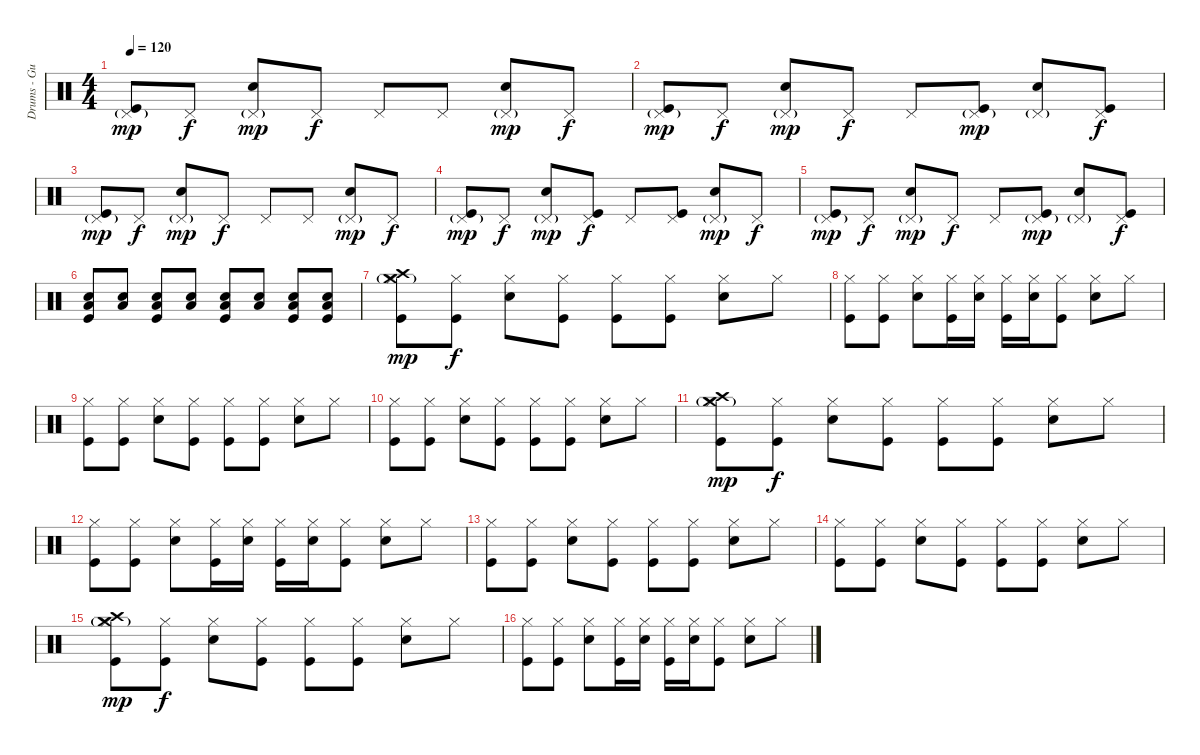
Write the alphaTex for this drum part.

\track ("Drums - Gustav" "Drums - Gu") {instrument percussion}
\staff {score}
\articulation defaults
\ts (4 4)
\tempo 120
\clef neutral
\ks c
("Kick (hit)" "Pedal Hi-Hat (hit)"{g}).8{dy mp} "Pedal Hi-Hat (hit)".8{dy f} ("Pedal Hi-Hat (hit)"{g} "Snare (hit) 2").8{dy mp} "Pedal Hi-Hat (hit)".8{dy f} "Pedal Hi-Hat (hit)".8 "Pedal Hi-Hat (hit)".8 ("Pedal Hi-Hat (hit)"{g} "Snare (hit) 2").8{dy mp} "Pedal Hi-Hat (hit)".8{dy f} |
("Kick (hit)" "Pedal Hi-Hat (hit)"{g}).8{dy mp} "Pedal Hi-Hat (hit)".8{dy f} ("Pedal Hi-Hat (hit)"{g} "Snare (hit) 2").8{dy mp} "Pedal Hi-Hat (hit)".8{dy f} "Pedal Hi-Hat (hit)".8 ("Kick (hit)" "Pedal Hi-Hat (hit)"{g}).8{dy mp} ("Pedal Hi-Hat (hit)"{g} "Snare (hit) 2").8 ("Kick (hit)" "Pedal Hi-Hat (hit)").8{dy f} |
("Kick (hit)" "Pedal Hi-Hat (hit)"{g}).8{dy mp} "Pedal Hi-Hat (hit)".8{dy f} ("Pedal Hi-Hat (hit)"{g} "Snare (hit) 2").8{dy mp} "Pedal Hi-Hat (hit)".8{dy f} "Pedal Hi-Hat (hit)".8 "Pedal Hi-Hat (hit)".8 ("Pedal Hi-Hat (hit)"{g} "Snare (hit) 2").8{dy mp} "Pedal Hi-Hat (hit)".8{dy f} |
("Kick (hit)" "Pedal Hi-Hat (hit)"{g}).8{dy mp} "Pedal Hi-Hat (hit)".8{dy f} ("Pedal Hi-Hat (hit)"{g} "Snare (hit) 2").8{dy mp} ("Kick (hit)" "Pedal Hi-Hat (hit)").8{dy f} "Pedal Hi-Hat (hit)".8 ("Kick (hit)" "Pedal Hi-Hat (hit)").8 ("Pedal Hi-Hat (hit)"{g} "Snare (hit) 2").8{dy mp} "Pedal Hi-Hat (hit)".8{dy f} |
("Kick (hit)" "Pedal Hi-Hat (hit)"{g}).8{dy mp} "Pedal Hi-Hat (hit)".8{dy f} ("Pedal Hi-Hat (hit)"{g} "Snare (hit) 2").8{dy mp} "Pedal Hi-Hat (hit)".8{dy f} "Pedal Hi-Hat (hit)".8 ("Kick (hit)" "Pedal Hi-Hat (hit)"{g}).8{dy mp} ("Pedal Hi-Hat (hit)"{g} "Snare (hit) 2").8 ("Kick (hit)" "Pedal Hi-Hat (hit)").8{dy f volume 8} |
("Kick (hit)" "Snare (hit) 2" "Low Floor Tom (hit)").8{volume 15} ("Snare (hit) 2" "Low Floor Tom (hit)").8 ("Kick (hit)" "Snare (hit) 2" "Low Floor Tom (hit)").8 ("Snare (hit) 2" "Low Floor Tom (hit)").8 ("Kick (hit)" "Snare (hit) 2" "Low Floor Tom (hit)").8 ("Snare (hit) 2" "Low Floor Tom (hit)").8 ("Kick (hit)" "Snare (hit) 2" "Low Floor Tom (hit)").8 ("Kick (hit)" "Snare (hit) 2" "Low Floor Tom (hit)").8 |
("Kick (hit)" "Hi-Hat (closed)"{g} "Crash high (hit)" "Crash medium (hit)").8{dy mp} ("Kick (hit)" "Hi-Hat (closed)").8{dy f} ("Hi-Hat (closed)" "Snare (hit) 2").8 ("Kick (hit)" "Hi-Hat (closed)").8 ("Kick (hit)" "Hi-Hat (closed)").8 ("Kick (hit)" "Hi-Hat (closed)").8 ("Hi-Hat (closed)" "Snare (hit) 2").8 "Hi-Hat (closed)".8 |
("Kick (hit)" "Hi-Hat (closed)").8 ("Kick (hit)" "Hi-Hat (closed)").8 ("Hi-Hat (closed)" "Snare (hit) 2").8 ("Kick (hit)" "Hi-Hat (closed)").16 ("Hi-Hat (closed)" "Snare (hit) 2").16 ("Kick (hit)" "Hi-Hat (closed)").16 ("Hi-Hat (closed)" "Snare (hit) 2").16 ("Kick (hit)" "Hi-Hat (closed)").8 ("Hi-Hat (closed)" "Snare (hit) 2").8 "Hi-Hat (closed)".8 |
("Kick (hit)" "Hi-Hat (closed)").8 ("Kick (hit)" "Hi-Hat (closed)").8 ("Hi-Hat (closed)" "Snare (hit) 2").8 ("Kick (hit)" "Hi-Hat (closed)").8 ("Kick (hit)" "Hi-Hat (closed)").8 ("Kick (hit)" "Hi-Hat (closed)").8 ("Hi-Hat (closed)" "Snare (hit) 2").8 "Hi-Hat (closed)".8 |
("Kick (hit)" "Hi-Hat (closed)").8 ("Kick (hit)" "Hi-Hat (closed)").8 ("Hi-Hat (closed)" "Snare (hit) 2").8 ("Kick (hit)" "Hi-Hat (closed)").8 ("Kick (hit)" "Hi-Hat (closed)").8 ("Kick (hit)" "Hi-Hat (closed)").8 ("Hi-Hat (closed)" "Snare (hit) 2").8 "Hi-Hat (closed)".8 |
("Kick (hit)" "Hi-Hat (closed)"{g} "Crash high (hit)" "Crash medium (hit)").8{dy mp} ("Kick (hit)" "Hi-Hat (closed)").8{dy f} ("Hi-Hat (closed)" "Snare (hit) 2").8 ("Kick (hit)" "Hi-Hat (closed)").8 ("Kick (hit)" "Hi-Hat (closed)").8 ("Kick (hit)" "Hi-Hat (closed)").8 ("Hi-Hat (closed)" "Snare (hit) 2").8 "Hi-Hat (closed)".8 |
("Kick (hit)" "Hi-Hat (closed)").8 ("Kick (hit)" "Hi-Hat (closed)").8 ("Hi-Hat (closed)" "Snare (hit) 2").8 ("Kick (hit)" "Hi-Hat (closed)").16 ("Hi-Hat (closed)" "Snare (hit) 2").16 ("Kick (hit)" "Hi-Hat (closed)").16 ("Hi-Hat (closed)" "Snare (hit) 2").16 ("Kick (hit)" "Hi-Hat (closed)").8 ("Hi-Hat (closed)" "Snare (hit) 2").8 "Hi-Hat (closed)".8 |
("Kick (hit)" "Hi-Hat (closed)").8 ("Kick (hit)" "Hi-Hat (closed)").8 ("Hi-Hat (closed)" "Snare (hit) 2").8 ("Kick (hit)" "Hi-Hat (closed)").8 ("Kick (hit)" "Hi-Hat (closed)").8 ("Kick (hit)" "Hi-Hat (closed)").8 ("Hi-Hat (closed)" "Snare (hit) 2").8 "Hi-Hat (closed)".8 |
("Kick (hit)" "Hi-Hat (closed)").8 ("Kick (hit)" "Hi-Hat (closed)").8 ("Hi-Hat (closed)" "Snare (hit) 2").8 ("Kick (hit)" "Hi-Hat (closed)").8 ("Kick (hit)" "Hi-Hat (closed)").8 ("Kick (hit)" "Hi-Hat (closed)").8 ("Hi-Hat (closed)" "Snare (hit) 2").8 "Hi-Hat (closed)".8 |
("Kick (hit)" "Hi-Hat (closed)"{g} "Crash high (hit)" "Crash medium (hit)").8{dy mp} ("Kick (hit)" "Hi-Hat (closed)").8{dy f} ("Hi-Hat (closed)" "Snare (hit) 2").8 ("Kick (hit)" "Hi-Hat (closed)").8 ("Kick (hit)" "Hi-Hat (closed)").8 ("Kick (hit)" "Hi-Hat (closed)").8 ("Hi-Hat (closed)" "Snare (hit) 2").8 "Hi-Hat (closed)".8 |
("Kick (hit)" "Hi-Hat (closed)").8 ("Kick (hit)" "Hi-Hat (closed)").8 ("Hi-Hat (closed)" "Snare (hit) 2").8 ("Kick (hit)" "Hi-Hat (closed)").16 ("Hi-Hat (closed)" "Snare (hit) 2").16 ("Kick (hit)" "Hi-Hat (closed)").16 ("Hi-Hat (closed)" "Snare (hit) 2").16 ("Kick (hit)" "Hi-Hat (closed)").8 ("Hi-Hat (closed)" "Snare (hit) 2").8 "Hi-Hat (closed)".8
